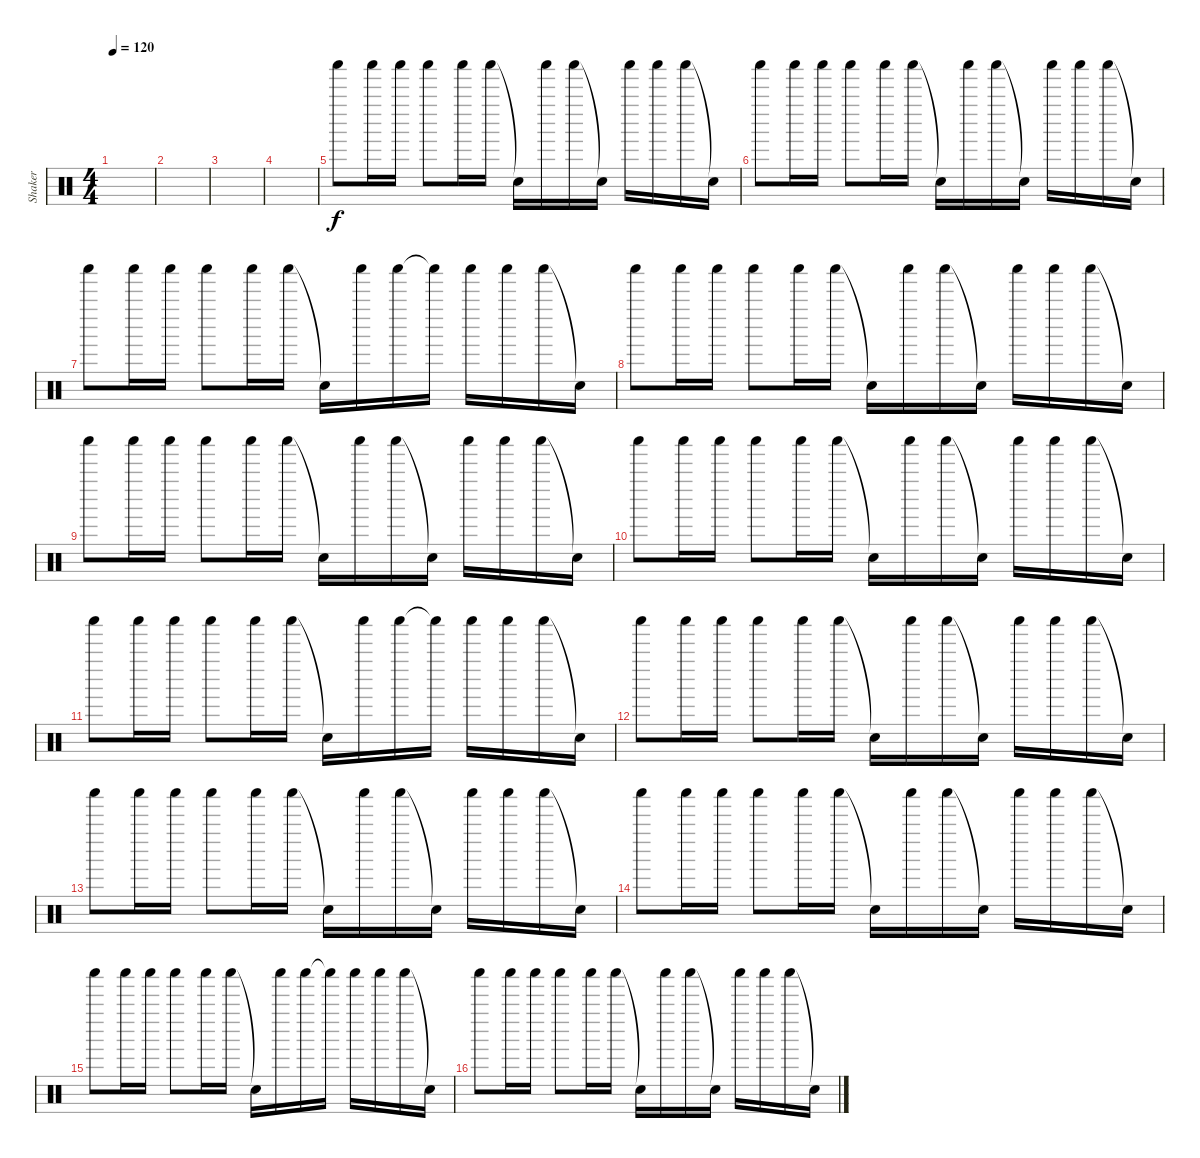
\track ("Shaker" "Shaker") {instrument percussion}
\staff {score}
\articulation defaults
\ts (4 4)
\tempo 120
\clef neutral
\ks c
|
|
|
|
"Shaker (hit)".8 "Shaker (hit)".16 "Shaker (hit)".16 "Shaker (hit)".8 "Shaker (hit)".16 "Shaker (hit)".16 "Snare (hit)"{t}.16 "Shaker (hit)".16 "Shaker (hit)".16 "Snare (hit)"{t}.16 "Shaker (hit)".16 "Shaker (hit)".16 "Shaker (hit)".16 "Snare (hit)"{t}.16 |
"Shaker (hit)".8 "Shaker (hit)".16 "Shaker (hit)".16 "Shaker (hit)".8 "Shaker (hit)".16 "Shaker (hit)".16 "Snare (hit)"{t}.16 "Shaker (hit)".16 "Shaker (hit)".16 "Snare (hit)"{t}.16 "Shaker (hit)".16 "Shaker (hit)".16 "Shaker (hit)".16 "Snare (hit)"{t}.16 |
"Shaker (hit)".8 "Shaker (hit)".16 "Shaker (hit)".16 "Shaker (hit)".8 "Shaker (hit)".16 "Shaker (hit)".16 "Snare (hit)"{t}.16 "Shaker (hit)".16 "Shaker (hit)".16 "Shaker (hit)"{t}.16 "Shaker (hit)".16 "Shaker (hit)".16 "Shaker (hit)".16 "Snare (hit)"{t}.16 |
"Shaker (hit)".8 "Shaker (hit)".16 "Shaker (hit)".16 "Shaker (hit)".8 "Shaker (hit)".16 "Shaker (hit)".16 "Snare (hit)"{t}.16 "Shaker (hit)".16 "Shaker (hit)".16 "Snare (hit)"{t}.16 "Shaker (hit)".16 "Shaker (hit)".16 "Shaker (hit)".16 "Snare (hit)"{t}.16 |
"Shaker (hit)".8 "Shaker (hit)".16 "Shaker (hit)".16 "Shaker (hit)".8 "Shaker (hit)".16 "Shaker (hit)".16 "Snare (hit)"{t}.16 "Shaker (hit)".16 "Shaker (hit)".16 "Snare (hit)"{t}.16 "Shaker (hit)".16 "Shaker (hit)".16 "Shaker (hit)".16 "Snare (hit)"{t}.16 |
"Shaker (hit)".8 "Shaker (hit)".16 "Shaker (hit)".16 "Shaker (hit)".8 "Shaker (hit)".16 "Shaker (hit)".16 "Snare (hit)"{t}.16 "Shaker (hit)".16 "Shaker (hit)".16 "Snare (hit)"{t}.16 "Shaker (hit)".16 "Shaker (hit)".16 "Shaker (hit)".16 "Snare (hit)"{t}.16 |
"Shaker (hit)".8 "Shaker (hit)".16 "Shaker (hit)".16 "Shaker (hit)".8 "Shaker (hit)".16 "Shaker (hit)".16 "Snare (hit)"{t}.16 "Shaker (hit)".16 "Shaker (hit)".16 "Shaker (hit)"{t}.16 "Shaker (hit)".16 "Shaker (hit)".16 "Shaker (hit)".16 "Snare (hit)"{t}.16 |
"Shaker (hit)".8 "Shaker (hit)".16 "Shaker (hit)".16 "Shaker (hit)".8 "Shaker (hit)".16 "Shaker (hit)".16 "Snare (hit)"{t}.16 "Shaker (hit)".16 "Shaker (hit)".16 "Snare (hit)"{t}.16 "Shaker (hit)".16 "Shaker (hit)".16 "Shaker (hit)".16 "Snare (hit)"{t}.16 |
"Shaker (hit)".8 "Shaker (hit)".16 "Shaker (hit)".16 "Shaker (hit)".8 "Shaker (hit)".16 "Shaker (hit)".16 "Snare (hit)"{t}.16 "Shaker (hit)".16 "Shaker (hit)".16 "Snare (hit)"{t}.16 "Shaker (hit)".16 "Shaker (hit)".16 "Shaker (hit)".16 "Snare (hit)"{t}.16 |
"Shaker (hit)".8 "Shaker (hit)".16 "Shaker (hit)".16 "Shaker (hit)".8 "Shaker (hit)".16 "Shaker (hit)".16 "Snare (hit)"{t}.16 "Shaker (hit)".16 "Shaker (hit)".16 "Snare (hit)"{t}.16 "Shaker (hit)".16 "Shaker (hit)".16 "Shaker (hit)".16 "Snare (hit)"{t}.16 |
"Shaker (hit)".8 "Shaker (hit)".16 "Shaker (hit)".16 "Shaker (hit)".8 "Shaker (hit)".16 "Shaker (hit)".16 "Snare (hit)"{t}.16 "Shaker (hit)".16 "Shaker (hit)".16 "Shaker (hit)"{t}.16 "Shaker (hit)".16 "Shaker (hit)".16 "Shaker (hit)".16 "Snare (hit)"{t}.16 |
"Shaker (hit)".8 "Shaker (hit)".16 "Shaker (hit)".16 "Shaker (hit)".8 "Shaker (hit)".16 "Shaker (hit)".16 "Snare (hit)"{t}.16 "Shaker (hit)".16 "Shaker (hit)".16 "Snare (hit)"{t}.16 "Shaker (hit)".16 "Shaker (hit)".16 "Shaker (hit)".16 "Snare (hit)"{t}.16
